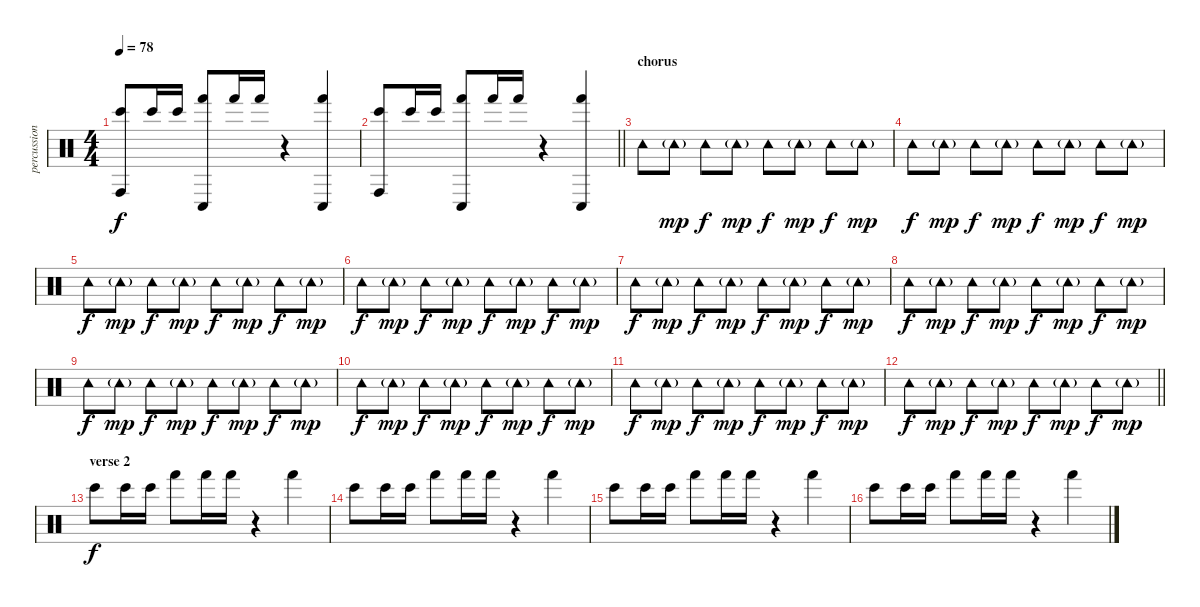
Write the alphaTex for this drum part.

\track ("percussion" "percussion") {instrument percussion}
\staff {score}
\articulation defaults
\ts (4 4)
\tempo 78
\clef neutral
\ks c
("Conga high (hit)" "Bongo High (hit)").8{dy f} "Bongo High (hit)".16 "Bongo High (hit)".16 ("Conga low (hit)" "Hand (hit)").8 "Hand (hit)".16 "Hand (hit)".16 r.4 ("Conga low (hit)" "Hand (hit)").4 |
\barLineRight lightlight
("Conga high (hit)" "Bongo High (hit)").8 "Bongo High (hit)".16 "Bongo High (hit)".16 ("Conga low (hit)" "Hand (hit)").8 "Hand (hit)".16 "Hand (hit)".16 r.4 ("Conga low (hit)" "Hand (hit)").4 |
\section ("" "chorus")
"Tambourine (hit)".8 "Tambourine (hit)"{g}.8{dy mp} "Tambourine (hit)".8{dy f} "Tambourine (hit)"{g}.8{dy mp} "Tambourine (hit)".8{dy f} "Tambourine (hit)"{g}.8{dy mp} "Tambourine (hit)".8{dy f} "Tambourine (hit)"{g}.8{dy mp} |
"Tambourine (hit)".8{dy f} "Tambourine (hit)"{g}.8{dy mp} "Tambourine (hit)".8{dy f} "Tambourine (hit)"{g}.8{dy mp} "Tambourine (hit)".8{dy f} "Tambourine (hit)"{g}.8{dy mp} "Tambourine (hit)".8{dy f} "Tambourine (hit)"{g}.8{dy mp} |
"Tambourine (hit)".8{dy f} "Tambourine (hit)"{g}.8{dy mp} "Tambourine (hit)".8{dy f} "Tambourine (hit)"{g}.8{dy mp} "Tambourine (hit)".8{dy f} "Tambourine (hit)"{g}.8{dy mp} "Tambourine (hit)".8{dy f} "Tambourine (hit)"{g}.8{dy mp} |
"Tambourine (hit)".8{dy f} "Tambourine (hit)"{g}.8{dy mp} "Tambourine (hit)".8{dy f} "Tambourine (hit)"{g}.8{dy mp} "Tambourine (hit)".8{dy f} "Tambourine (hit)"{g}.8{dy mp} "Tambourine (hit)".8{dy f} "Tambourine (hit)"{g}.8{dy mp} |
"Tambourine (hit)".8{dy f} "Tambourine (hit)"{g}.8{dy mp} "Tambourine (hit)".8{dy f} "Tambourine (hit)"{g}.8{dy mp} "Tambourine (hit)".8{dy f} "Tambourine (hit)"{g}.8{dy mp} "Tambourine (hit)".8{dy f} "Tambourine (hit)"{g}.8{dy mp} |
"Tambourine (hit)".8{dy f} "Tambourine (hit)"{g}.8{dy mp} "Tambourine (hit)".8{dy f} "Tambourine (hit)"{g}.8{dy mp} "Tambourine (hit)".8{dy f} "Tambourine (hit)"{g}.8{dy mp} "Tambourine (hit)".8{dy f} "Tambourine (hit)"{g}.8{dy mp} |
"Tambourine (hit)".8{dy f} "Tambourine (hit)"{g}.8{dy mp} "Tambourine (hit)".8{dy f} "Tambourine (hit)"{g}.8{dy mp} "Tambourine (hit)".8{dy f} "Tambourine (hit)"{g}.8{dy mp} "Tambourine (hit)".8{dy f} "Tambourine (hit)"{g}.8{dy mp} |
"Tambourine (hit)".8{dy f} "Tambourine (hit)"{g}.8{dy mp} "Tambourine (hit)".8{dy f} "Tambourine (hit)"{g}.8{dy mp} "Tambourine (hit)".8{dy f} "Tambourine (hit)"{g}.8{dy mp} "Tambourine (hit)".8{dy f} "Tambourine (hit)"{g}.8{dy mp} |
"Tambourine (hit)".8{dy f} "Tambourine (hit)"{g}.8{dy mp} "Tambourine (hit)".8{dy f} "Tambourine (hit)"{g}.8{dy mp} "Tambourine (hit)".8{dy f} "Tambourine (hit)"{g}.8{dy mp} "Tambourine (hit)".8{dy f} "Tambourine (hit)"{g}.8{dy mp} |
\barLineRight lightlight "Tambourine (hit)".8{dy f} "Tambourine (hit)"{g}.8{dy mp} "Tambourine (hit)".8{dy f} "Tambourine (hit)"{g}.8{dy mp} "Tambourine (hit)".8{dy f} "Tambourine (hit)"{g}.8{dy mp} "Tambourine (hit)".8{dy f} "Tambourine (hit)"{g}.8{dy mp}
|
\section ("" "verse 2")
"Bongo High (hit)".8{dy f} "Bongo High (hit)".16 "Bongo High (hit)".16 "Hand (hit)".8 "Hand (hit)".16 "Hand (hit)".16 r.4 "Hand (hit)".4 |
"Bongo High (hit)".8 "Bongo High (hit)".16 "Bongo High (hit)".16 "Hand (hit)".8 "Hand (hit)".16 "Hand (hit)".16 r.4 "Hand (hit)".4 |
"Bongo High (hit)".8 "Bongo High (hit)".16 "Bongo High (hit)".16 "Hand (hit)".8 "Hand (hit)".16 "Hand (hit)".16 r.4 "Hand (hit)".4 |
"Bongo High (hit)".8 "Bongo High (hit)".16 "Bongo High (hit)".16 "Hand (hit)".8 "Hand (hit)".16 "Hand (hit)".16 r.4 "Hand (hit)".4
